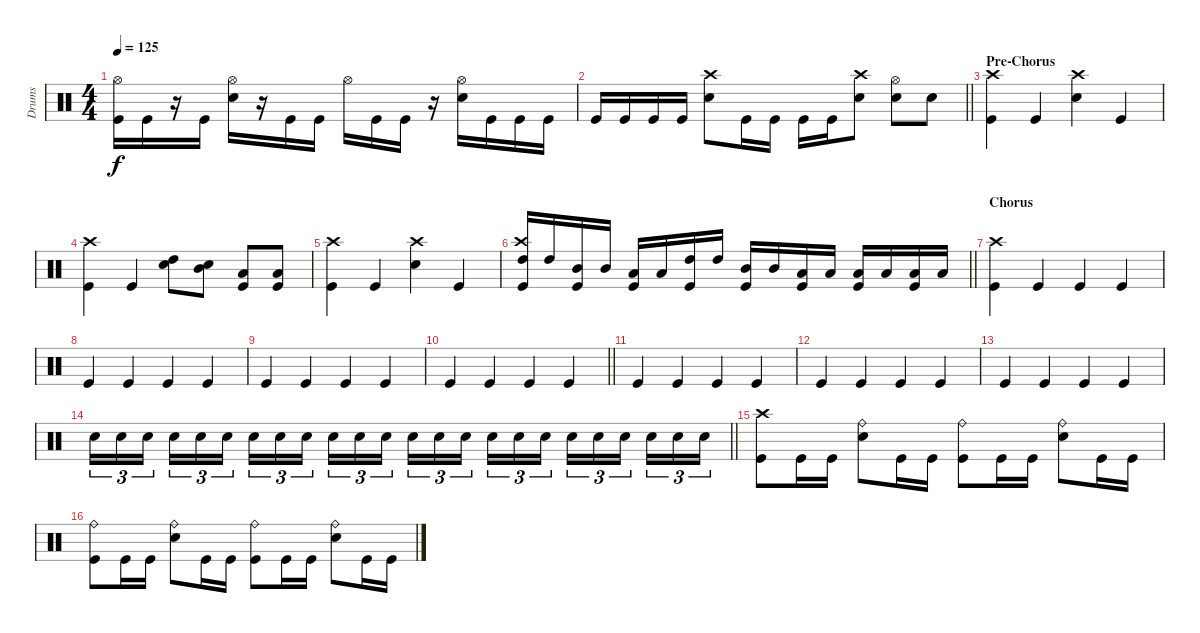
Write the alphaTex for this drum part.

\track ("Drums " "Drums ") {instrument percussion}
\staff {score}
\articulation defaults
\ts (4 4)
\tempo 125
\clef neutral
\ks c
("Hi-Hat (open)" "Kick (hit)").16{dy f} "Kick (hit)".16 r.16 "Kick (hit)".16 ("Hi-Hat (open)" "Electric Snare (hit)").16 r.16 "Kick (hit)".16 "Kick (hit)".16 "Hi-Hat (open)".16 "Kick (hit)".16 "Kick (hit)".16 r.16 ("Hi-Hat (open)" "Electric Snare (hit)").16 "Kick (hit)".16 "Kick (hit)".16 "Kick (hit)".16 |
\barLineRight lightlight "Kick (hit)".16 "Kick (hit)".16 "Kick (hit)".16 "Kick (hit)".16
("Crash high (hit)" "Electric Snare (hit)").8 "Kick (hit)".16 "Kick (hit)".16 "Kick (hit)".16 "Kick (hit)".16 ("Crash high (hit)" "Electric Snare (hit)").8 ("Hi-Hat (open)" "Electric Snare (hit)").8 "Electric Snare (hit)".8 |
\section ("" "Pre-Chorus ")
("Crash high (hit)" "Kick (hit)").4 "Kick (hit)".4 ("Crash high (hit)" "Electric Snare (hit)").4 "Kick (hit)".4 |
("Crash high (hit)" "Kick (hit)").4 "Kick (hit)".4 ("High Tom (hit)" "Electric Snare (hit)").8 ("Mid Tom (hit)" "Electric Snare (hit)").8 ("Low Tom (hit)" "Kick (hit)").8 ("Low Floor Tom (hit)" "Kick (hit)").8 |
("Crash high (hit)" "Kick (hit)").4 "Kick (hit)".4 ("Crash high (hit)" "Electric Snare (hit)").4 "Kick (hit)".4 |
\barLineRight lightlight
("Crash high (hit)" "High Tom (hit)" "Kick (hit)").16 "High Tom (hit)".16 ("Mid Tom (hit)" "Kick (hit)").16 "Mid Tom (hit)".16 ("Low Tom (hit)" "Kick (hit)").16 "Low Tom (hit)".16 ("High Tom (hit)" "Kick (hit)").16 "High Tom (hit)".16 ("Mid Tom (hit)" "Kick (hit)").16 "Mid Tom (hit)".16 ("Low Tom (hit)" "Kick (hit)").16 "Low Tom (hit)".16 ("Low Floor Tom (hit)" "Kick (hit)").16 "Low Floor Tom (hit)".16 ("Low Floor Tom (hit)" "Kick (hit)").16 "Low Floor Tom (hit)".16 |
\section ("" "Chorus ")
("Crash high (hit)" "Kick (hit)").4 "Kick (hit)".4 "Kick (hit)".4 "Kick (hit)".4 |
"Kick (hit)".4 "Kick (hit)".4 "Kick (hit)".4 "Kick (hit)".4 |
"Kick (hit)".4 "Kick (hit)".4 "Kick (hit)".4 "Kick (hit)".4 |
\barLineRight lightlight "Kick (hit)".4 "Kick (hit)".4 "Kick (hit)".4 "Kick (hit)".4
|
"Kick (hit)".4 "Kick (hit)".4 "Kick (hit)".4 "Kick (hit)".4 |
"Kick (hit)".4 "Kick (hit)".4 "Kick (hit)".4 "Kick (hit)".4 |
"Kick (hit)".4 "Kick (hit)".4 "Kick (hit)".4 "Kick (hit)".4 |
\barLineRight lightlight "Electric Snare (hit)".16{tu (3 2)} "Electric Snare (hit)".16{tu (3 2)} "Electric Snare (hit)".16{tu (3 2) beam splitsecondary} "Electric Snare (hit)".16{tu (3 2)} "Electric Snare (hit)".16{tu (3 2)} "Electric Snare (hit)".16{tu (3 2)} "Electric Snare (hit)".16{tu (3 2)} "Electric Snare (hit)".16{tu (3 2)} "Electric Snare (hit)".16{tu (3 2) beam splitsecondary} "Electric Snare (hit)".16{tu (3 2)} "Electric Snare (hit)".16{tu (3 2)} "Electric Snare (hit)".16{tu (3 2)} "Electric Snare (hit)".16{tu (3 2)} "Electric Snare (hit)".16{tu (3 2)} "Electric Snare (hit)".16{tu (3 2) beam splitsecondary} "Electric Snare (hit)".16{tu (3 2)} "Electric Snare (hit)".16{tu (3 2)} "Electric Snare (hit)".16{tu (3 2)} "Electric Snare (hit)".16{tu (3 2)} "Electric Snare (hit)".16{tu (3 2)} "Electric Snare (hit)".16{tu (3 2) beam splitsecondary} "Electric Snare (hit)".16{tu (3 2)} "Electric Snare (hit)".16{tu (3 2)} "Electric Snare (hit)".16{tu (3 2)}
|
("Crash high (hit)" "Kick (hit)").8 "Kick (hit)".16 "Kick (hit)".16 ("Ride (bell)" "Electric Snare (hit)").8 "Kick (hit)".16 "Kick (hit)".16 ("Ride (bell)" "Kick (hit)").8 "Kick (hit)".16 "Kick (hit)".16 ("Ride (bell)" "Electric Snare (hit)").8 "Kick (hit)".16 "Kick (hit)".16 |
("Ride (bell)" "Kick (hit)").8 "Kick (hit)".16 "Kick (hit)".16 ("Ride (bell)" "Electric Snare (hit)").8 "Kick (hit)".16 "Kick (hit)".16 ("Ride (bell)" "Kick (hit)").8 "Kick (hit)".16 "Kick (hit)".16 ("Ride (bell)" "Electric Snare (hit)").8 "Kick (hit)".16 "Kick (hit)".16
